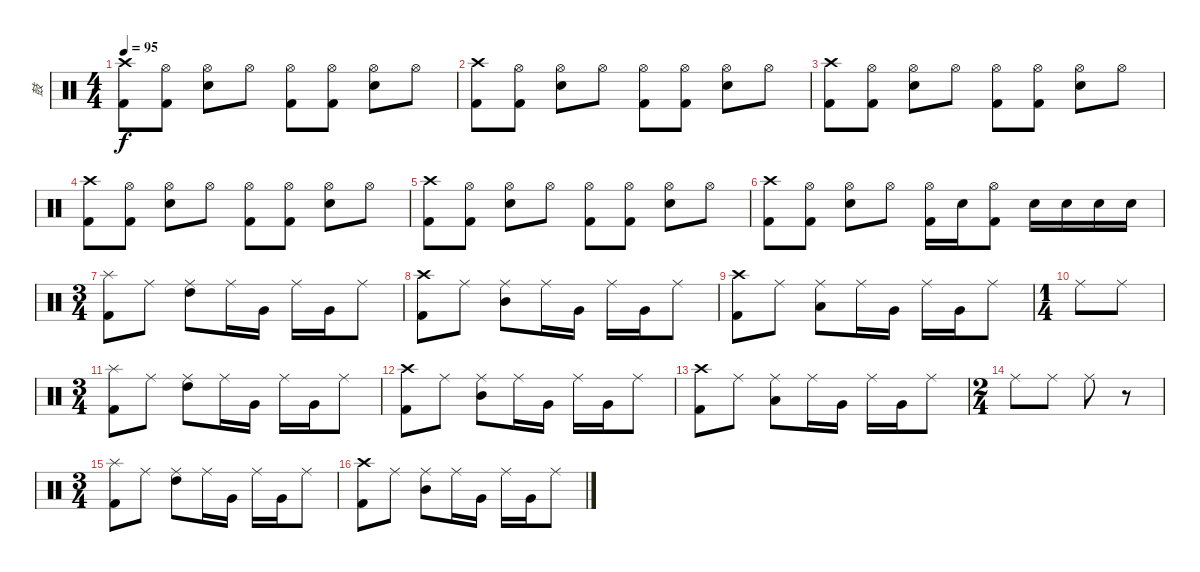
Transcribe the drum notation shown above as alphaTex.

\track ("鼓" "鼓") {instrument percussion}
\staff {score}
\articulation defaults
\ts (4 4)
\tempo 95
\clef neutral
\ks c
("Crash high (hit)" "Kick (hit) 2").8{dy f} ("Hi-Hat (open)" "Kick (hit) 2").8 ("Hi-Hat (open)" "Snare (hit) 2").8 "Hi-Hat (open)".8 ("Hi-Hat (open)" "Kick (hit) 2").8 ("Hi-Hat (open)" "Kick (hit) 2").8 ("Hi-Hat (open)" "Snare (hit) 2").8 "Hi-Hat (open)".8 |
("Crash high (hit)" "Kick (hit) 2").8 ("Hi-Hat (open)" "Kick (hit) 2").8 ("Hi-Hat (open)" "Snare (hit) 2").8 "Hi-Hat (open)".8 ("Hi-Hat (open)" "Kick (hit) 2").8 ("Hi-Hat (open)" "Kick (hit) 2").8 ("Hi-Hat (open)" "Snare (hit) 2").8 "Hi-Hat (open)".8 |
("Crash high (hit)" "Kick (hit) 2").8 ("Hi-Hat (open)" "Kick (hit) 2").8 ("Hi-Hat (open)" "Snare (hit) 2").8 "Hi-Hat (open)".8 ("Hi-Hat (open)" "Kick (hit) 2").8 ("Hi-Hat (open)" "Kick (hit) 2").8 ("Hi-Hat (open)" "Snare (hit) 2").8 "Hi-Hat (open)".8 |
("Crash high (hit)" "Kick (hit) 2").8 ("Hi-Hat (open)" "Kick (hit) 2").8 ("Hi-Hat (open)" "Snare (hit) 2").8 "Hi-Hat (open)".8 ("Hi-Hat (open)" "Kick (hit) 2").8 ("Hi-Hat (open)" "Kick (hit) 2").8 ("Hi-Hat (open)" "Snare (hit) 2").8 "Hi-Hat (open)".8 |
("Crash high (hit)" "Kick (hit) 2").8 ("Hi-Hat (open)" "Kick (hit) 2").8 ("Hi-Hat (open)" "Snare (hit) 2").8 "Hi-Hat (open)".8 ("Hi-Hat (open)" "Kick (hit) 2").8 ("Hi-Hat (open)" "Kick (hit) 2").8 ("Hi-Hat (open)" "Snare (hit) 2").8 "Hi-Hat (open)".8 |
("Crash high (hit)" "Kick (hit) 2").8 ("Hi-Hat (open)" "Kick (hit) 2").8 ("Hi-Hat (open)" "Snare (hit) 2").8 "Hi-Hat (open)".8 ("Hi-Hat (open)" "Kick (hit) 2").16 "Snare (hit) 2".16 ("Hi-Hat (open)" "Kick (hit) 2").8 "Snare (hit) 2".16 "Snare (hit) 2".16 "Snare (hit) 2".16 "Snare (hit) 2".16 |
\ts (3 4)
("Splash (hit)" "Kick (hit) 2").8 "Ride (middle)".8 ("Ride (middle)" "High Tom (hit)").8 "Ride (middle)".16 "Very Low Tom (hit)".16 "Ride (middle)".16 "Very Low Tom (hit)".16 "Ride (middle)".8 |
("Crash high (hit)" "Kick (hit) 2").8 "Ride (middle)".8 ("Ride (middle)" "Mid Tom (hit)").8 "Ride (middle)".16 "Very Low Tom (hit)".16 "Ride (middle)".16 "Very Low Tom (hit)".16 "Ride (middle)".8 |
("Crash high (hit)" "Kick (hit) 2").8 "Ride (middle)".8 ("Ride (middle)" "Low Tom (hit)").8 "Ride (middle)".16 "Very Low Tom (hit)".16 "Ride (middle)".16 "Very Low Tom (hit)".16 "Ride (middle)".8 |
\ts (1 4)
"Ride (middle)".8 "Ride (middle)".8 |
\ts (3 4)
("Splash (hit)" "Kick (hit) 2").8 "Ride (middle)".8 ("Ride (middle)" "High Tom (hit)").8 "Ride (middle)".16 "Very Low Tom (hit)".16 "Ride (middle)".16 "Very Low Tom (hit)".16 "Ride (middle)".8 |
("Crash high (hit)" "Kick (hit) 2").8 "Ride (middle)".8 ("Ride (middle)" "Mid Tom (hit)").8 "Ride (middle)".16 "Very Low Tom (hit)".16 "Ride (middle)".16 "Very Low Tom (hit)".16 "Ride (middle)".8 |
("Crash high (hit)" "Kick (hit) 2").8 "Ride (middle)".8 ("Ride (middle)" "Low Tom (hit)").8 "Ride (middle)".16 "Very Low Tom (hit)".16 "Ride (middle)".16 "Very Low Tom (hit)".16 "Ride (middle)".8 |
\ts (2 4)
"Ride (middle)".8 "Ride (middle)".8 "Ride (middle)".8 r.8 |
\ts (3 4)
("Splash (hit)" "Kick (hit) 2").8 "Ride (middle)".8 ("Ride (middle)" "High Tom (hit)").8 "Ride (middle)".16 "Very Low Tom (hit)".16 "Ride (middle)".16 "Very Low Tom (hit)".16 "Ride (middle)".8 |
("Crash high (hit)" "Kick (hit) 2").8 "Ride (middle)".8 ("Ride (middle)" "Mid Tom (hit)").8 "Ride (middle)".16 "Very Low Tom (hit)".16 "Ride (middle)".16 "Very Low Tom (hit)".16 "Ride (middle)".8
